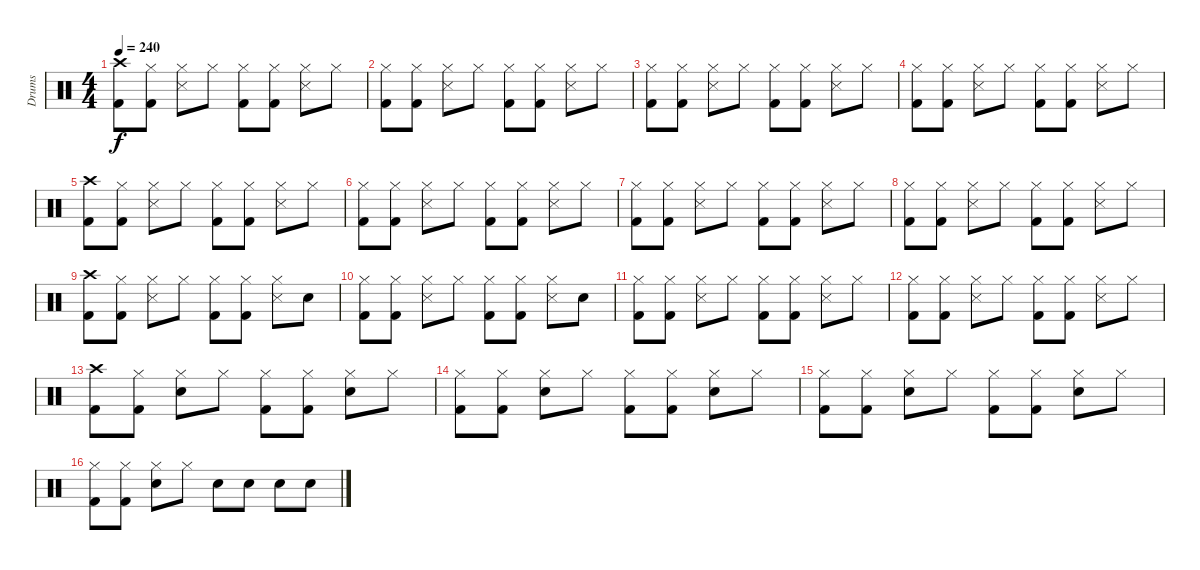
\track ("Drums" "Drums") {instrument percussion}
\staff {score}
\articulation defaults
\ts (4 4)
\tempo 240
\clef neutral
\ks c
("Crash high (hit)" "Kick (hit) 2").8{dy f} ("Hi-Hat (closed)" "Kick (hit) 2").8 ("Hi-Hat (closed)" "Snare (side stick) 3").8 "Hi-Hat (closed)".8 ("Hi-Hat (closed)" "Kick (hit) 2").8 ("Hi-Hat (closed)" "Kick (hit) 2").8 ("Hi-Hat (closed)" "Snare (side stick) 3").8 "Hi-Hat (closed)".8 |
("Hi-Hat (closed)" "Kick (hit) 2").8 ("Hi-Hat (closed)" "Kick (hit) 2").8 ("Hi-Hat (closed)" "Snare (side stick) 3").8 "Hi-Hat (closed)".8 ("Hi-Hat (closed)" "Kick (hit) 2").8 ("Hi-Hat (closed)" "Kick (hit) 2").8 ("Hi-Hat (closed)" "Snare (side stick) 3").8 "Hi-Hat (closed)".8 |
("Hi-Hat (closed)" "Kick (hit) 2").8 ("Hi-Hat (closed)" "Kick (hit) 2").8 ("Hi-Hat (closed)" "Snare (side stick) 3").8 "Hi-Hat (closed)".8 ("Hi-Hat (closed)" "Kick (hit) 2").8 ("Hi-Hat (closed)" "Kick (hit) 2").8 ("Hi-Hat (closed)" "Snare (side stick) 3").8 "Hi-Hat (closed)".8 |
("Hi-Hat (closed)" "Kick (hit) 2").8 ("Hi-Hat (closed)" "Kick (hit) 2").8 ("Hi-Hat (closed)" "Snare (side stick) 3").8 "Hi-Hat (closed)".8 ("Hi-Hat (closed)" "Kick (hit) 2").8 ("Hi-Hat (closed)" "Kick (hit) 2").8 ("Hi-Hat (closed)" "Snare (side stick) 3").8 "Hi-Hat (closed)".8 |
("Crash high (hit)" "Kick (hit) 2").8 ("Hi-Hat (closed)" "Kick (hit) 2").8 ("Hi-Hat (closed)" "Snare (side stick) 3").8 "Hi-Hat (closed)".8 ("Hi-Hat (closed)" "Kick (hit) 2").8 ("Hi-Hat (closed)" "Kick (hit) 2").8 ("Hi-Hat (closed)" "Snare (side stick) 3").8 "Hi-Hat (closed)".8 |
("Hi-Hat (closed)" "Kick (hit) 2").8 ("Hi-Hat (closed)" "Kick (hit) 2").8 ("Hi-Hat (closed)" "Snare (side stick) 3").8 "Hi-Hat (closed)".8 ("Hi-Hat (closed)" "Kick (hit) 2").8 ("Hi-Hat (closed)" "Kick (hit) 2").8 ("Hi-Hat (closed)" "Snare (side stick) 3").8 "Hi-Hat (closed)".8 |
("Hi-Hat (closed)" "Kick (hit) 2").8 ("Hi-Hat (closed)" "Kick (hit) 2").8 ("Hi-Hat (closed)" "Snare (side stick) 3").8 "Hi-Hat (closed)".8 ("Hi-Hat (closed)" "Kick (hit) 2").8 ("Hi-Hat (closed)" "Kick (hit) 2").8 ("Hi-Hat (closed)" "Snare (side stick) 3").8 "Hi-Hat (closed)".8 |
("Hi-Hat (closed)" "Kick (hit) 2").8 ("Hi-Hat (closed)" "Kick (hit) 2").8 ("Hi-Hat (closed)" "Snare (side stick) 3").8 "Hi-Hat (closed)".8 ("Hi-Hat (closed)" "Kick (hit) 2").8 ("Hi-Hat (closed)" "Kick (hit) 2").8 ("Hi-Hat (closed)" "Snare (side stick) 3").8 "Hi-Hat (closed)".8 |
("Crash high (hit)" "Kick (hit) 2").8 ("Hi-Hat (closed)" "Kick (hit) 2").8 ("Hi-Hat (closed)" "Snare (side stick) 3").8 "Hi-Hat (closed)".8 ("Hi-Hat (closed)" "Kick (hit) 2").8 ("Hi-Hat (closed)" "Kick (hit) 2").8 ("Hi-Hat (closed)" "Snare (side stick) 3").8 "Snare (hit)".8 |
("Hi-Hat (closed)" "Kick (hit) 2").8 ("Hi-Hat (closed)" "Kick (hit) 2").8 ("Hi-Hat (closed)" "Snare (side stick) 3").8 "Hi-Hat (closed)".8 ("Hi-Hat (closed)" "Kick (hit) 2").8 ("Hi-Hat (closed)" "Kick (hit) 2").8 ("Hi-Hat (closed)" "Snare (side stick) 3").8 "Snare (hit)".8 |
("Hi-Hat (closed)" "Kick (hit) 2").8 ("Hi-Hat (closed)" "Kick (hit) 2").8 ("Hi-Hat (closed)" "Snare (side stick) 3").8 "Hi-Hat (closed)".8 ("Hi-Hat (closed)" "Kick (hit) 2").8 ("Hi-Hat (closed)" "Kick (hit) 2").8 ("Hi-Hat (closed)" "Snare (side stick) 3").8 "Hi-Hat (closed)".8 |
("Hi-Hat (closed)" "Kick (hit) 2").8 ("Hi-Hat (closed)" "Kick (hit) 2").8 ("Hi-Hat (closed)" "Snare (side stick) 3").8 "Hi-Hat (closed)".8 ("Hi-Hat (closed)" "Kick (hit) 2").8 ("Hi-Hat (closed)" "Kick (hit) 2").8 ("Hi-Hat (closed)" "Snare (side stick) 3").8 "Hi-Hat (closed)".8 |
("Crash high (hit)" "Kick (hit) 2").8 ("Hi-Hat (closed)" "Kick (hit) 2").8 ("Hi-Hat (closed)" "Snare (hit) 2").8 "Hi-Hat (closed)".8 ("Hi-Hat (closed)" "Kick (hit) 2").8 ("Hi-Hat (closed)" "Kick (hit) 2").8 ("Hi-Hat (closed)" "Snare (hit) 2").8 "Hi-Hat (closed)".8 |
("Hi-Hat (closed)" "Kick (hit) 2").8 ("Hi-Hat (closed)" "Kick (hit) 2").8 ("Hi-Hat (closed)" "Snare (hit) 2").8 "Hi-Hat (closed)".8 ("Hi-Hat (closed)" "Kick (hit) 2").8 ("Hi-Hat (closed)" "Kick (hit) 2").8 ("Hi-Hat (closed)" "Snare (hit) 2").8 "Hi-Hat (closed)".8 |
("Hi-Hat (closed)" "Kick (hit) 2").8 ("Hi-Hat (closed)" "Kick (hit) 2").8 ("Hi-Hat (closed)" "Snare (hit) 2").8 "Hi-Hat (closed)".8 ("Hi-Hat (closed)" "Kick (hit) 2").8 ("Hi-Hat (closed)" "Kick (hit) 2").8 ("Hi-Hat (closed)" "Snare (hit) 2").8 "Hi-Hat (closed)".8 |
("Hi-Hat (closed)" "Kick (hit) 2").8 ("Hi-Hat (closed)" "Kick (hit) 2").8 ("Hi-Hat (closed)" "Snare (hit) 2").8 "Hi-Hat (closed)".8 "Snare (hit) 2".8 "Snare (hit) 2".8 "Snare (hit) 2".8 "Snare (hit) 2".8
